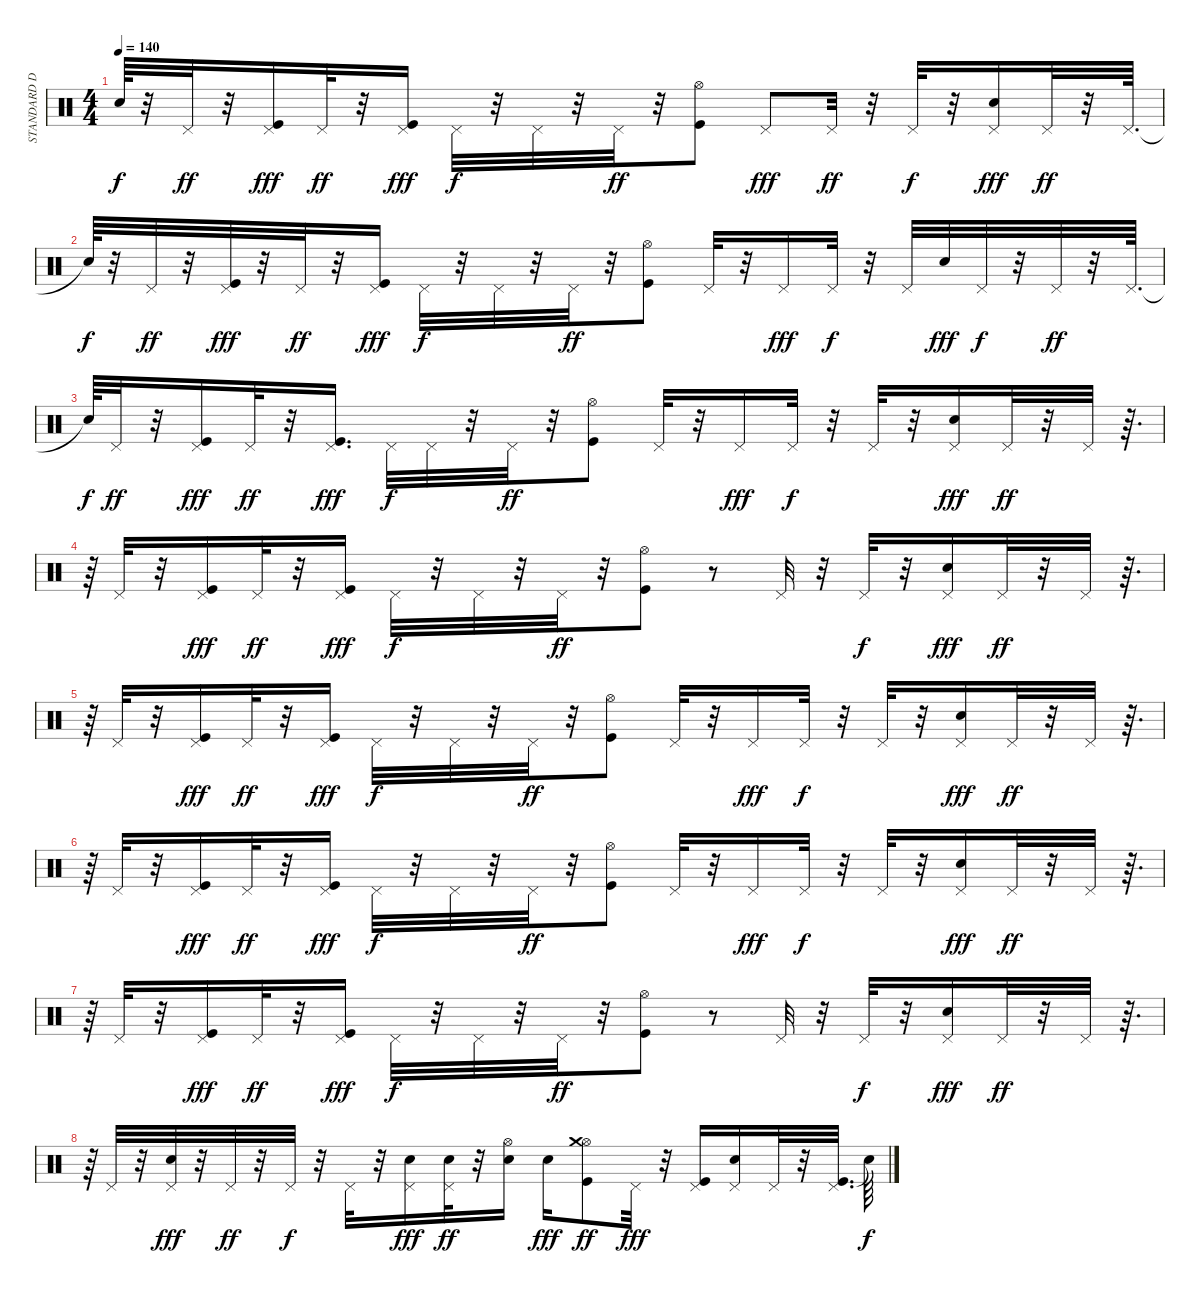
\track ("STANDARD DRUMS" "STANDARD D") {instrument percussion}
\staff {score}
\articulation defaults
\ts (4 4)
\tempo 140
\clef neutral
\ks c "Snare (hit)"{t}.64{dy f}
r.32 "Pedal Hi-Hat (hit)".32{dy ff} r.32 ("Kick (hit)" "Pedal Hi-Hat (hit)").16{dy fff} "Pedal Hi-Hat (hit)".32{dy ff} r.32 ("Kick (hit)" "Pedal Hi-Hat (hit)").16{dy fff} "Pedal Hi-Hat (hit)".32{dy f} r.32 "Pedal Hi-Hat (hit)".32 r.32 "Pedal Hi-Hat (hit)".32{dy ff} r.32 ("Kick (hit)" "Hi-Hat (open)").8 "Pedal Hi-Hat (hit)".8{dy fff} "Pedal Hi-Hat (hit)".32{dy ff} r.32 "Pedal Hi-Hat (hit)".32{dy f} r.32 ("Snare (hit) 2" "Pedal Hi-Hat (hit)").16{dy fff} "Pedal Hi-Hat (hit)".32{dy ff} r.32 "Pedal Hi-Hat (hit)".64{d} |
"Snare (hit)"{t}.64{dy f} r.32 "Pedal Hi-Hat (hit)".32{dy ff} r.32 ("Kick (hit)" "Pedal Hi-Hat (hit)").32{dy fff} r.32 "Pedal Hi-Hat (hit)".32{dy ff} r.32 ("Kick (hit)" "Pedal Hi-Hat (hit)").16{dy fff} "Pedal Hi-Hat (hit)".32{dy f} r.32 "Pedal Hi-Hat (hit)".32 r.32 "Pedal Hi-Hat (hit)".32{dy ff} r.32 ("Kick (hit)" "Hi-Hat (open)").8 "Pedal Hi-Hat (hit)".32 r.32 "Pedal Hi-Hat (hit)".16{dy fff} "Pedal Hi-Hat (hit)".32{dy f} r.32 "Pedal Hi-Hat (hit)".32 "Snare (hit) 2".32{dy fff} "Pedal Hi-Hat (hit)".32{dy f} r.32 "Pedal Hi-Hat (hit)".32{dy ff} r.32 "Pedal Hi-Hat (hit)".64{d} |
"Snare (hit)"{t}.64{dy f} "Pedal Hi-Hat (hit)".32{dy ff} r.32 ("Kick (hit)" "Pedal Hi-Hat (hit)").16{dy fff} "Pedal Hi-Hat (hit)".32{dy ff} r.32 ("Kick (hit)" "Pedal Hi-Hat (hit)").16{d dy fff} "Pedal Hi-Hat (hit)".32{dy f} "Pedal Hi-Hat (hit)".32 r.32 "Pedal Hi-Hat (hit)".32{dy ff} r.32 ("Kick (hit)" "Hi-Hat (open)").8 "Pedal Hi-Hat (hit)".32 r.32 "Pedal Hi-Hat (hit)".16{dy fff} "Pedal Hi-Hat (hit)".32{dy f} r.32 "Pedal Hi-Hat (hit)".32 r.32 ("Snare (hit) 2" "Pedal Hi-Hat (hit)").16{dy fff} "Pedal Hi-Hat (hit)".32{dy ff} r.32 "Pedal Hi-Hat (hit)".32 r.64{d} |
r.64 "Pedal Hi-Hat (hit)".32 r.32 ("Kick (hit)" "Pedal Hi-Hat (hit)").16{dy fff} "Pedal Hi-Hat (hit)".32{dy ff} r.32 ("Kick (hit)" "Pedal Hi-Hat (hit)").16{dy fff} "Pedal Hi-Hat (hit)".32{dy f} r.32 "Pedal Hi-Hat (hit)".32 r.32 "Pedal Hi-Hat (hit)".32{dy ff} r.32 ("Kick (hit)" "Hi-Hat (open)").8 r.8 "Pedal Hi-Hat (hit)".32 r.32 "Pedal Hi-Hat (hit)".32{dy f} r.32 ("Snare (hit) 2" "Pedal Hi-Hat (hit)").16{dy fff} "Pedal Hi-Hat (hit)".32{dy ff} r.32 "Pedal Hi-Hat (hit)".32 r.64{d} |
r.64 "Pedal Hi-Hat (hit)".32 r.32 ("Kick (hit)" "Pedal Hi-Hat (hit)").16{dy fff} "Pedal Hi-Hat (hit)".32{dy ff} r.32 ("Kick (hit)" "Pedal Hi-Hat (hit)").16{dy fff} "Pedal Hi-Hat (hit)".32{dy f} r.32 "Pedal Hi-Hat (hit)".32 r.32 "Pedal Hi-Hat (hit)".32{dy ff} r.32 ("Kick (hit)" "Hi-Hat (open)").8 "Pedal Hi-Hat (hit)".32 r.32 "Pedal Hi-Hat (hit)".16{dy fff} "Pedal Hi-Hat (hit)".32{dy f} r.32 "Pedal Hi-Hat (hit)".32 r.32 ("Snare (hit) 2" "Pedal Hi-Hat (hit)").16{dy fff} "Pedal Hi-Hat (hit)".32{dy ff} r.32 "Pedal Hi-Hat (hit)".32 r.64{d} |
r.64 "Pedal Hi-Hat (hit)".32 r.32 ("Kick (hit)" "Pedal Hi-Hat (hit)").16{dy fff} "Pedal Hi-Hat (hit)".32{dy ff} r.32 ("Kick (hit)" "Pedal Hi-Hat (hit)").16{dy fff} "Pedal Hi-Hat (hit)".32{dy f} r.32 "Pedal Hi-Hat (hit)".32 r.32 "Pedal Hi-Hat (hit)".32{dy ff} r.32 ("Kick (hit)" "Hi-Hat (open)").8 "Pedal Hi-Hat (hit)".32 r.32 "Pedal Hi-Hat (hit)".16{dy fff} "Pedal Hi-Hat (hit)".32{dy f} r.32 "Pedal Hi-Hat (hit)".32 r.32 ("Snare (hit) 2" "Pedal Hi-Hat (hit)").16{dy fff} "Pedal Hi-Hat (hit)".32{dy ff} r.32 "Pedal Hi-Hat (hit)".32 r.64{d} |
r.64 "Pedal Hi-Hat (hit)".32 r.32 ("Kick (hit)" "Pedal Hi-Hat (hit)").16{dy fff} "Pedal Hi-Hat (hit)".32{dy ff} r.32 ("Kick (hit)" "Pedal Hi-Hat (hit)").16{dy fff} "Pedal Hi-Hat (hit)".32{dy f} r.32 "Pedal Hi-Hat (hit)".32 r.32 "Pedal Hi-Hat (hit)".32{dy ff} r.32 ("Kick (hit)" "Hi-Hat (open)").8 r.8 "Pedal Hi-Hat (hit)".32 r.32 "Pedal Hi-Hat (hit)".32{dy f} r.32 ("Snare (hit) 2" "Pedal Hi-Hat (hit)").16{dy fff} "Pedal Hi-Hat (hit)".32{dy ff} r.32 "Pedal Hi-Hat (hit)".32 r.64{d} |
r.64 "Pedal Hi-Hat (hit)".32 r.32 ("Snare (hit) 2" "Pedal Hi-Hat (hit)").32{dy fff} r.32 "Pedal Hi-Hat (hit)".32{dy ff} r.32 "Pedal Hi-Hat (hit)".32{dy f} r.32 "Pedal Hi-Hat (hit)".32 r.32 ("Snare (hit) 2" "Pedal Hi-Hat (hit)").16{dy fff} ("Snare (hit) 2" "Pedal Hi-Hat (hit)").32{dy ff} r.32 ("Snare (hit) 2" "Hi-Hat (open)").16 "Snare (hit) 2".16{dy fff} ("Kick (hit)" "Hi-Hat (open)" "Crash medium (hit)").8{dy ff} "Pedal Hi-Hat (hit)".32{dy fff} r.32 ("Kick (hit)" "Pedal Hi-Hat (hit)").16 ("Snare (hit) 2" "Pedal Hi-Hat (hit)").16 "Pedal Hi-Hat (hit)".32 r.32 ("Kick (hit)" "Pedal Hi-Hat (hit)").32{d} "Snare (hit)"{t}.64{dy f}
